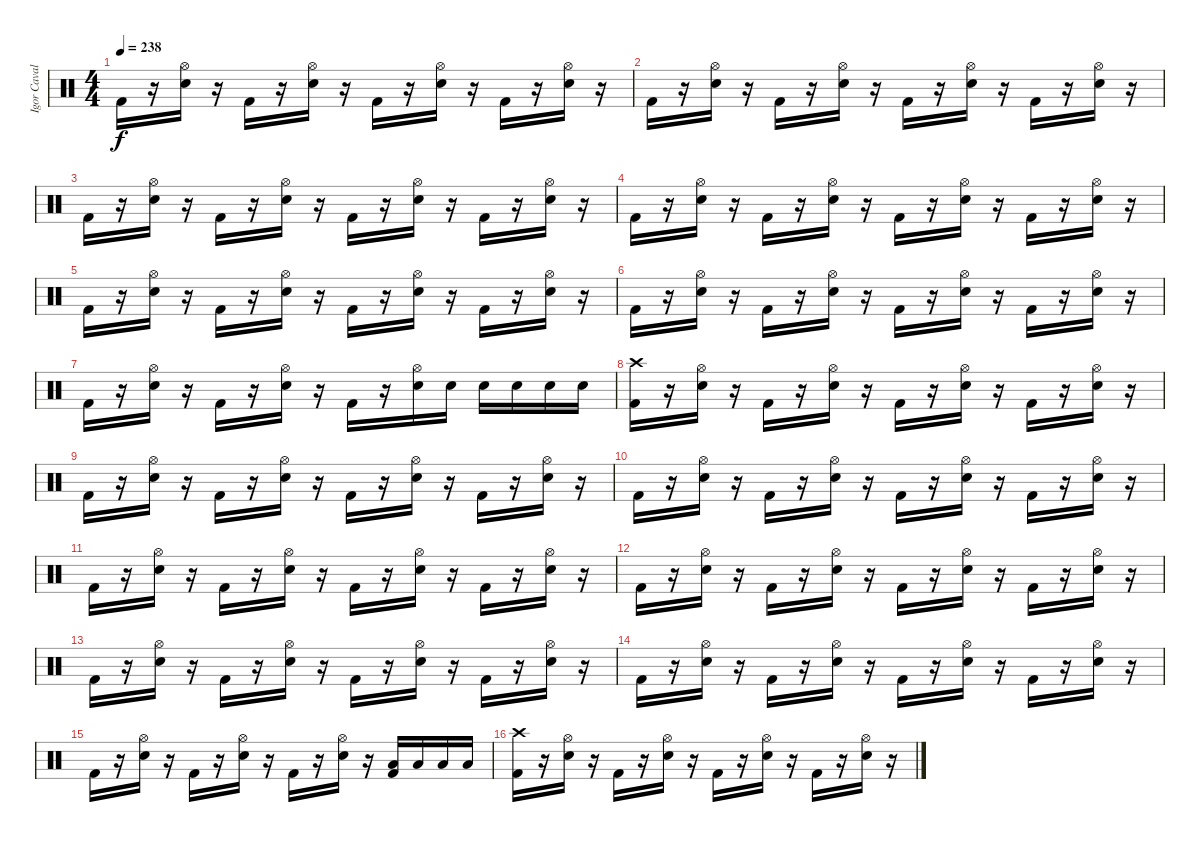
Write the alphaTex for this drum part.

\track ("Igor Cavalera" "Igor Caval") {instrument percussion}
\staff {score}
\articulation defaults
\ts (4 4)
\tempo 238
\clef neutral
\ks c "Kick (hit) 2".16{dy f}
r.16 ("Snare (hit) 2" "Hi-Hat (open)").16 r.16 "Kick (hit) 2".16 r.16 ("Snare (hit) 2" "Hi-Hat (open)").16 r.16 "Kick (hit) 2".16 r.16 ("Snare (hit) 2" "Hi-Hat (open)").16 r.16 "Kick (hit) 2".16 r.16 ("Snare (hit) 2" "Hi-Hat (open)").16 r.16 |
"Kick (hit) 2".16 r.16 ("Snare (hit) 2" "Hi-Hat (open)").16 r.16 "Kick (hit) 2".16 r.16 ("Snare (hit) 2" "Hi-Hat (open)").16 r.16 "Kick (hit) 2".16 r.16 ("Snare (hit) 2" "Hi-Hat (open)").16 r.16 "Kick (hit) 2".16 r.16 ("Snare (hit) 2" "Hi-Hat (open)").16 r.16 |
"Kick (hit) 2".16 r.16 ("Snare (hit) 2" "Hi-Hat (open)").16 r.16 "Kick (hit) 2".16 r.16 ("Snare (hit) 2" "Hi-Hat (open)").16 r.16 "Kick (hit) 2".16 r.16 ("Snare (hit) 2" "Hi-Hat (open)").16 r.16 "Kick (hit) 2".16 r.16 ("Snare (hit) 2" "Hi-Hat (open)").16 r.16 |
"Kick (hit) 2".16 r.16 ("Snare (hit) 2" "Hi-Hat (open)").16 r.16 "Kick (hit) 2".16 r.16 ("Snare (hit) 2" "Hi-Hat (open)").16 r.16 "Kick (hit) 2".16 r.16 ("Snare (hit) 2" "Hi-Hat (open)").16 r.16 "Kick (hit) 2".16 r.16 ("Snare (hit) 2" "Hi-Hat (open)").16 r.16 |
"Kick (hit) 2".16 r.16 ("Snare (hit) 2" "Hi-Hat (open)").16 r.16 "Kick (hit) 2".16 r.16 ("Snare (hit) 2" "Hi-Hat (open)").16 r.16 "Kick (hit) 2".16 r.16 ("Snare (hit) 2" "Hi-Hat (open)").16 r.16 "Kick (hit) 2".16 r.16 ("Snare (hit) 2" "Hi-Hat (open)").16 r.16 |
"Kick (hit) 2".16 r.16 ("Snare (hit) 2" "Hi-Hat (open)").16 r.16 "Kick (hit) 2".16 r.16 ("Snare (hit) 2" "Hi-Hat (open)").16 r.16 "Kick (hit) 2".16 r.16 ("Snare (hit) 2" "Hi-Hat (open)").16 r.16 "Kick (hit) 2".16 r.16 ("Snare (hit) 2" "Hi-Hat (open)").16 r.16 |
"Kick (hit) 2".16 r.16 ("Snare (hit) 2" "Hi-Hat (open)").16 r.16 "Kick (hit) 2".16 r.16 ("Snare (hit) 2" "Hi-Hat (open)").16 r.16 "Kick (hit) 2".16 r.16 ("Snare (hit) 2" "Hi-Hat (open)").16 "Snare (hit) 2".16 "Snare (hit) 2".16 "Snare (hit) 2".16 "Snare (hit) 2".16 "Snare (hit) 2".16 |
("Crash high (hit)" "Kick (hit) 2").16 r.16 ("Snare (hit) 2" "Hi-Hat (open)").16 r.16 "Kick (hit) 2".16 r.16 ("Snare (hit) 2" "Hi-Hat (open)").16 r.16 "Kick (hit) 2".16 r.16 ("Snare (hit) 2" "Hi-Hat (open)").16 r.16 "Kick (hit) 2".16 r.16 ("Snare (hit) 2" "Hi-Hat (open)").16 r.16 |
"Kick (hit) 2".16 r.16 ("Snare (hit) 2" "Hi-Hat (open)").16 r.16 "Kick (hit) 2".16 r.16 ("Snare (hit) 2" "Hi-Hat (open)").16 r.16 "Kick (hit) 2".16 r.16 ("Snare (hit) 2" "Hi-Hat (open)").16 r.16 "Kick (hit) 2".16 r.16 ("Snare (hit) 2" "Hi-Hat (open)").16 r.16 |
"Kick (hit) 2".16 r.16 ("Snare (hit) 2" "Hi-Hat (open)").16 r.16 "Kick (hit) 2".16 r.16 ("Snare (hit) 2" "Hi-Hat (open)").16 r.16 "Kick (hit) 2".16 r.16 ("Snare (hit) 2" "Hi-Hat (open)").16 r.16 "Kick (hit) 2".16 r.16 ("Snare (hit) 2" "Hi-Hat (open)").16 r.16 |
"Kick (hit) 2".16 r.16 ("Snare (hit) 2" "Hi-Hat (open)").16 r.16 "Kick (hit) 2".16 r.16 ("Snare (hit) 2" "Hi-Hat (open)").16 r.16 "Kick (hit) 2".16 r.16 ("Snare (hit) 2" "Hi-Hat (open)").16 r.16 "Kick (hit) 2".16 r.16 ("Snare (hit) 2" "Hi-Hat (open)").16 r.16 |
"Kick (hit) 2".16 r.16 ("Snare (hit) 2" "Hi-Hat (open)").16 r.16 "Kick (hit) 2".16 r.16 ("Snare (hit) 2" "Hi-Hat (open)").16 r.16 "Kick (hit) 2".16 r.16 ("Snare (hit) 2" "Hi-Hat (open)").16 r.16 "Kick (hit) 2".16 r.16 ("Snare (hit) 2" "Hi-Hat (open)").16 r.16 |
"Kick (hit) 2".16 r.16 ("Snare (hit) 2" "Hi-Hat (open)").16 r.16 "Kick (hit) 2".16 r.16 ("Snare (hit) 2" "Hi-Hat (open)").16 r.16 "Kick (hit) 2".16 r.16 ("Snare (hit) 2" "Hi-Hat (open)").16 r.16 "Kick (hit) 2".16 r.16 ("Snare (hit) 2" "Hi-Hat (open)").16 r.16 |
"Kick (hit) 2".16 r.16 ("Snare (hit) 2" "Hi-Hat (open)").16 r.16 "Kick (hit) 2".16 r.16 ("Snare (hit) 2" "Hi-Hat (open)").16 r.16 "Kick (hit) 2".16 r.16 ("Snare (hit) 2" "Hi-Hat (open)").16 r.16 "Kick (hit) 2".16 r.16 ("Snare (hit) 2" "Hi-Hat (open)").16 r.16 |
"Kick (hit) 2".16 r.16 ("Snare (hit) 2" "Hi-Hat (open)").16 r.16 "Kick (hit) 2".16 r.16 ("Snare (hit) 2" "Hi-Hat (open)").16 r.16 "Kick (hit) 2".16 r.16 ("Snare (hit) 2" "Hi-Hat (open)").16 r.16 ("Kick (hit) 2" "Low Tom (hit)").16 "Low Tom (hit)".16 "Low Floor Tom (hit)".16 "Low Floor Tom (hit)".16 |
("Crash high (hit)" "Kick (hit) 2").16 r.16 ("Snare (hit) 2" "Hi-Hat (open)").16 r.16 "Kick (hit) 2".16 r.16 ("Snare (hit) 2" "Hi-Hat (open)").16 r.16 "Kick (hit) 2".16 r.16 ("Snare (hit) 2" "Hi-Hat (open)").16 r.16 "Kick (hit) 2".16 r.16 ("Snare (hit) 2" "Hi-Hat (open)").16 r.16
